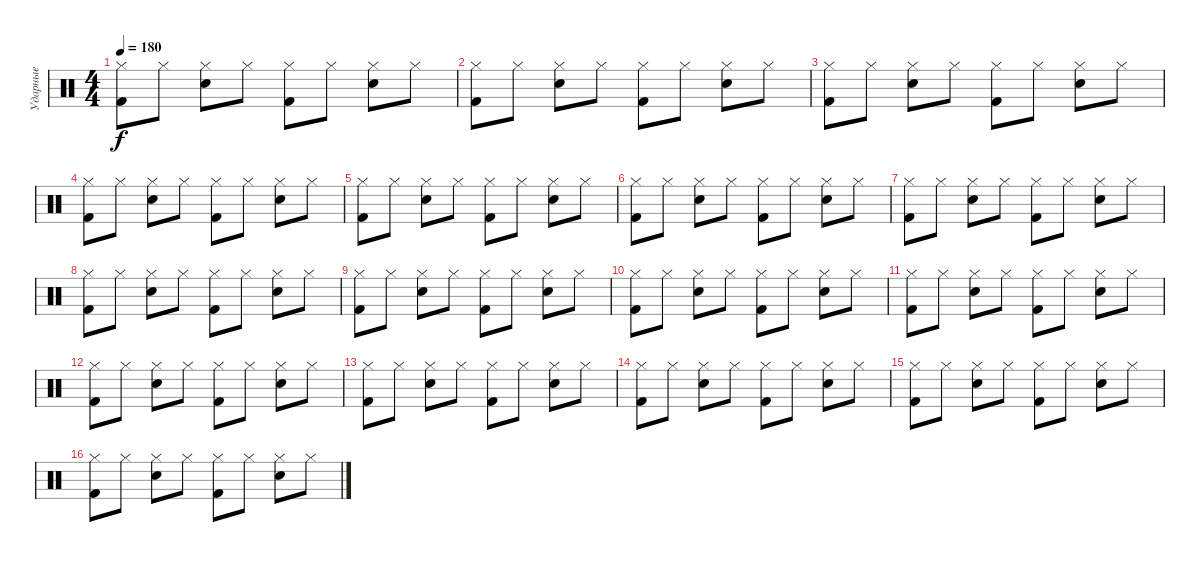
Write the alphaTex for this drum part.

\track ("Ударные" "Ударные") {instrument percussion}
\staff {score}
\articulation defaults
\ts (4 4)
\tempo 180
\clef neutral
\ks c
("Hi-Hat (closed)" "Kick (hit) 2").8{dy f} "Hi-Hat (closed)".8 ("Hi-Hat (closed)" "Snare (hit) 2").8 "Hi-Hat (closed)".8 ("Hi-Hat (closed)" "Kick (hit) 2").8 "Hi-Hat (closed)".8 ("Hi-Hat (closed)" "Snare (hit) 2").8 "Hi-Hat (closed)".8 |
("Hi-Hat (closed)" "Kick (hit) 2").8 "Hi-Hat (closed)".8 ("Hi-Hat (closed)" "Snare (hit) 2").8 "Hi-Hat (closed)".8 ("Hi-Hat (closed)" "Kick (hit) 2").8 "Hi-Hat (closed)".8 ("Hi-Hat (closed)" "Snare (hit) 2").8 "Hi-Hat (closed)".8 |
("Hi-Hat (closed)" "Kick (hit) 2").8 "Hi-Hat (closed)".8 ("Hi-Hat (closed)" "Snare (hit) 2").8 "Hi-Hat (closed)".8 ("Hi-Hat (closed)" "Kick (hit) 2").8 "Hi-Hat (closed)".8 ("Hi-Hat (closed)" "Snare (hit) 2").8 "Hi-Hat (closed)".8 |
("Hi-Hat (closed)" "Kick (hit) 2").8 "Hi-Hat (closed)".8 ("Hi-Hat (closed)" "Snare (hit) 2").8 "Hi-Hat (closed)".8 ("Hi-Hat (closed)" "Kick (hit) 2").8 "Hi-Hat (closed)".8 ("Hi-Hat (closed)" "Snare (hit) 2").8 "Hi-Hat (closed)".8 |
("Hi-Hat (closed)" "Kick (hit) 2").8 "Hi-Hat (closed)".8 ("Hi-Hat (closed)" "Snare (hit) 2").8 "Hi-Hat (closed)".8 ("Hi-Hat (closed)" "Kick (hit) 2").8 "Hi-Hat (closed)".8 ("Hi-Hat (closed)" "Snare (hit) 2").8 "Hi-Hat (closed)".8 |
("Hi-Hat (closed)" "Kick (hit) 2").8 "Hi-Hat (closed)".8 ("Hi-Hat (closed)" "Snare (hit) 2").8 "Hi-Hat (closed)".8 ("Hi-Hat (closed)" "Kick (hit) 2").8 "Hi-Hat (closed)".8 ("Hi-Hat (closed)" "Snare (hit) 2").8 "Hi-Hat (closed)".8 |
("Hi-Hat (closed)" "Kick (hit) 2").8 "Hi-Hat (closed)".8 ("Hi-Hat (closed)" "Snare (hit) 2").8 "Hi-Hat (closed)".8 ("Hi-Hat (closed)" "Kick (hit) 2").8 "Hi-Hat (closed)".8 ("Hi-Hat (closed)" "Snare (hit) 2").8 "Hi-Hat (closed)".8 |
("Hi-Hat (closed)" "Kick (hit) 2").8 "Hi-Hat (closed)".8 ("Hi-Hat (closed)" "Snare (hit) 2").8 "Hi-Hat (closed)".8 ("Hi-Hat (closed)" "Kick (hit) 2").8 "Hi-Hat (closed)".8 ("Hi-Hat (closed)" "Snare (hit) 2").8 "Hi-Hat (closed)".8 |
("Hi-Hat (closed)" "Kick (hit) 2").8 "Hi-Hat (closed)".8 ("Hi-Hat (closed)" "Snare (hit) 2").8 "Hi-Hat (closed)".8 ("Hi-Hat (closed)" "Kick (hit) 2").8 "Hi-Hat (closed)".8 ("Hi-Hat (closed)" "Snare (hit) 2").8 "Hi-Hat (closed)".8 |
("Hi-Hat (closed)" "Kick (hit) 2").8 "Hi-Hat (closed)".8 ("Hi-Hat (closed)" "Snare (hit) 2").8 "Hi-Hat (closed)".8 ("Hi-Hat (closed)" "Kick (hit) 2").8 "Hi-Hat (closed)".8 ("Hi-Hat (closed)" "Snare (hit) 2").8 "Hi-Hat (closed)".8 |
("Hi-Hat (closed)" "Kick (hit) 2").8 "Hi-Hat (closed)".8 ("Hi-Hat (closed)" "Snare (hit) 2").8 "Hi-Hat (closed)".8 ("Hi-Hat (closed)" "Kick (hit) 2").8 "Hi-Hat (closed)".8 ("Hi-Hat (closed)" "Snare (hit) 2").8 "Hi-Hat (closed)".8 |
("Hi-Hat (closed)" "Kick (hit) 2").8 "Hi-Hat (closed)".8 ("Hi-Hat (closed)" "Snare (hit) 2").8 "Hi-Hat (closed)".8 ("Hi-Hat (closed)" "Kick (hit) 2").8 "Hi-Hat (closed)".8 ("Hi-Hat (closed)" "Snare (hit) 2").8 "Hi-Hat (closed)".8 |
("Hi-Hat (closed)" "Kick (hit) 2").8 "Hi-Hat (closed)".8 ("Hi-Hat (closed)" "Snare (hit) 2").8 "Hi-Hat (closed)".8 ("Hi-Hat (closed)" "Kick (hit) 2").8 "Hi-Hat (closed)".8 ("Hi-Hat (closed)" "Snare (hit) 2").8 "Hi-Hat (closed)".8 |
("Hi-Hat (closed)" "Kick (hit) 2").8 "Hi-Hat (closed)".8 ("Hi-Hat (closed)" "Snare (hit) 2").8 "Hi-Hat (closed)".8 ("Hi-Hat (closed)" "Kick (hit) 2").8 "Hi-Hat (closed)".8 ("Hi-Hat (closed)" "Snare (hit) 2").8 "Hi-Hat (closed)".8 |
("Hi-Hat (closed)" "Kick (hit) 2").8 "Hi-Hat (closed)".8 ("Hi-Hat (closed)" "Snare (hit) 2").8 "Hi-Hat (closed)".8 ("Hi-Hat (closed)" "Kick (hit) 2").8 "Hi-Hat (closed)".8 ("Hi-Hat (closed)" "Snare (hit) 2").8 "Hi-Hat (closed)".8 |
("Hi-Hat (closed)" "Kick (hit) 2").8 "Hi-Hat (closed)".8 ("Hi-Hat (closed)" "Snare (hit) 2").8 "Hi-Hat (closed)".8 ("Hi-Hat (closed)" "Kick (hit) 2").8 "Hi-Hat (closed)".8 ("Hi-Hat (closed)" "Snare (hit) 2").8 "Hi-Hat (closed)".8
